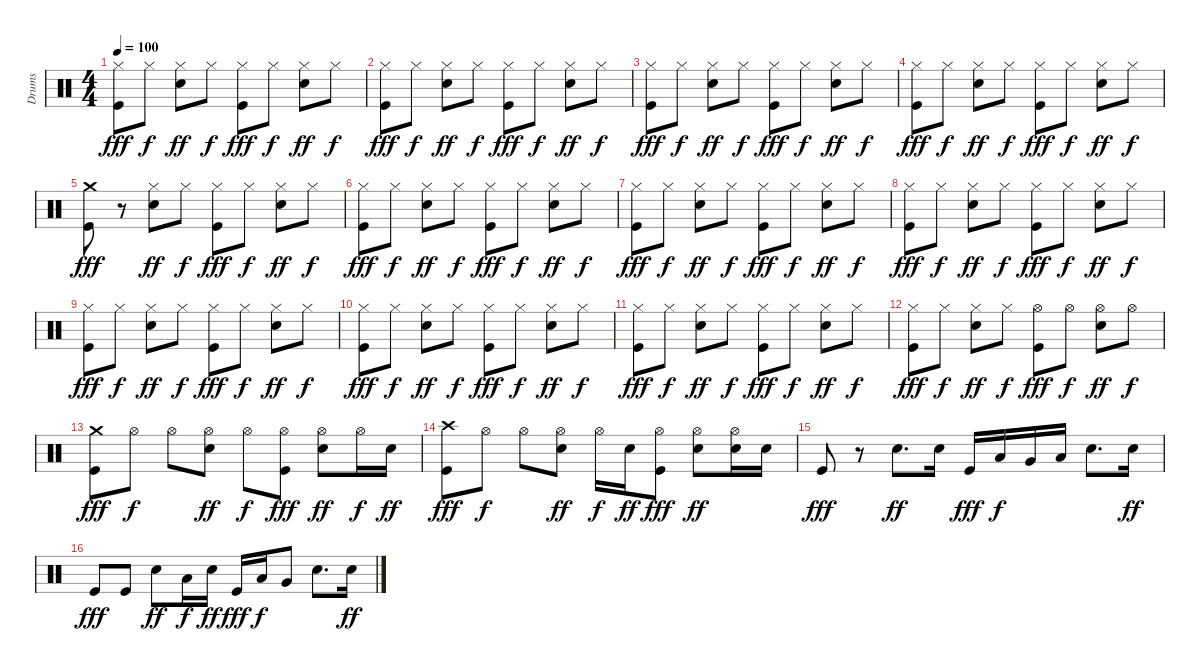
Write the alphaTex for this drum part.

\track ("Drums" "Drums") {instrument percussion}
\staff {score}
\articulation defaults
\ts (4 4)
\tempo 100
\clef neutral
\ks c
("Kick (hit)" "Hi-Hat (closed)").8{dy fff} "Hi-Hat (closed)".8{dy f} ("Snare (hit) 2" "Hi-Hat (closed)").8{dy ff} "Hi-Hat (closed)".8{dy f} ("Kick (hit)" "Hi-Hat (closed)").8{dy fff} "Hi-Hat (closed)".8{dy f} ("Snare (hit) 2" "Hi-Hat (closed)").8{dy ff} "Hi-Hat (closed)".8{dy f} |
("Kick (hit)" "Hi-Hat (closed)").8{dy fff} "Hi-Hat (closed)".8{dy f} ("Snare (hit) 2" "Hi-Hat (closed)").8{dy ff} "Hi-Hat (closed)".8{dy f} ("Kick (hit)" "Hi-Hat (closed)").8{dy fff} "Hi-Hat (closed)".8{dy f} ("Snare (hit) 2" "Hi-Hat (closed)").8{dy ff} "Hi-Hat (closed)".8{dy f} |
("Kick (hit)" "Hi-Hat (closed)").8{dy fff} "Hi-Hat (closed)".8{dy f} ("Snare (hit) 2" "Hi-Hat (closed)").8{dy ff} "Hi-Hat (closed)".8{dy f} ("Kick (hit)" "Hi-Hat (closed)").8{dy fff} "Hi-Hat (closed)".8{dy f} ("Snare (hit) 2" "Hi-Hat (closed)").8{dy ff} "Hi-Hat (closed)".8{dy f} |
("Kick (hit)" "Hi-Hat (closed)").8{dy fff} "Hi-Hat (closed)".8{dy f} ("Snare (hit) 2" "Hi-Hat (closed)").8{dy ff} "Hi-Hat (closed)".8{dy f} ("Kick (hit)" "Hi-Hat (closed)").8{dy fff} "Hi-Hat (closed)".8{dy f} ("Snare (hit) 2" "Hi-Hat (closed)").8{dy ff} "Hi-Hat (closed)".8{dy f} |
("Kick (hit)" "Crash medium (hit)").8{dy fff} r.8 ("Snare (hit) 2" "Hi-Hat (closed)").8{dy ff} "Hi-Hat (closed)".8{dy f} ("Kick (hit)" "Hi-Hat (closed)").8{dy fff} "Hi-Hat (closed)".8{dy f} ("Snare (hit) 2" "Hi-Hat (closed)").8{dy ff} "Hi-Hat (closed)".8{dy f} |
("Kick (hit)" "Hi-Hat (closed)").8{dy fff} "Hi-Hat (closed)".8{dy f} ("Snare (hit) 2" "Hi-Hat (closed)").8{dy ff} "Hi-Hat (closed)".8{dy f} ("Kick (hit)" "Hi-Hat (closed)").8{dy fff} "Hi-Hat (closed)".8{dy f} ("Snare (hit) 2" "Hi-Hat (closed)").8{dy ff} "Hi-Hat (closed)".8{dy f} |
("Kick (hit)" "Hi-Hat (closed)").8{dy fff} "Hi-Hat (closed)".8{dy f} ("Snare (hit) 2" "Hi-Hat (closed)").8{dy ff} "Hi-Hat (closed)".8{dy f} ("Kick (hit)" "Hi-Hat (closed)").8{dy fff} "Hi-Hat (closed)".8{dy f} ("Snare (hit) 2" "Hi-Hat (closed)").8{dy ff} "Hi-Hat (closed)".8{dy f} |
("Kick (hit)" "Hi-Hat (closed)").8{dy fff} "Hi-Hat (closed)".8{dy f} ("Snare (hit) 2" "Hi-Hat (closed)").8{dy ff} "Hi-Hat (closed)".8{dy f} ("Kick (hit)" "Hi-Hat (closed)").8{dy fff} "Hi-Hat (closed)".8{dy f} ("Snare (hit) 2" "Hi-Hat (closed)").8{dy ff} "Hi-Hat (closed)".8{dy f} |
("Kick (hit)" "Hi-Hat (closed)").8{dy fff} "Hi-Hat (closed)".8{dy f} ("Snare (hit) 2" "Hi-Hat (closed)").8{dy ff} "Hi-Hat (closed)".8{dy f} ("Kick (hit)" "Hi-Hat (closed)").8{dy fff} "Hi-Hat (closed)".8{dy f} ("Snare (hit) 2" "Hi-Hat (closed)").8{dy ff} "Hi-Hat (closed)".8{dy f} |
("Kick (hit)" "Hi-Hat (closed)").8{dy fff} "Hi-Hat (closed)".8{dy f} ("Snare (hit) 2" "Hi-Hat (closed)").8{dy ff} "Hi-Hat (closed)".8{dy f} ("Kick (hit)" "Hi-Hat (closed)").8{dy fff} "Hi-Hat (closed)".8{dy f} ("Snare (hit) 2" "Hi-Hat (closed)").8{dy ff} "Hi-Hat (closed)".8{dy f} |
("Kick (hit)" "Hi-Hat (closed)").8{dy fff} "Hi-Hat (closed)".8{dy f} ("Snare (hit) 2" "Hi-Hat (closed)").8{dy ff} "Hi-Hat (closed)".8{dy f} ("Kick (hit)" "Hi-Hat (closed)").8{dy fff} "Hi-Hat (closed)".8{dy f} ("Snare (hit) 2" "Hi-Hat (closed)").8{dy ff} "Hi-Hat (closed)".8{dy f} |
("Kick (hit)" "Hi-Hat (closed)").8{dy fff} "Hi-Hat (closed)".8{dy f} ("Snare (hit) 2" "Hi-Hat (closed)").8{dy ff} "Hi-Hat (closed)".8{dy f} ("Kick (hit)" "Hi-Hat (open)").8{dy fff} "Hi-Hat (open)".8{dy f} ("Snare (hit) 2" "Hi-Hat (open)").8{dy ff} "Hi-Hat (open)".8{dy f} |
("Kick (hit)" "Crash medium (hit)").8{dy fff} "Hi-Hat (open)".8{dy f} "Hi-Hat (open)".8 ("Snare (hit) 2" "Hi-Hat (open)").8{dy ff} "Hi-Hat (open)".8{dy f} ("Kick (hit)" "Hi-Hat (open)").8{dy fff} ("Snare (hit) 2" "Hi-Hat (open)").8{dy ff} "Hi-Hat (open)".16{dy f} "Snare (hit) 2".16{dy ff} |
("Kick (hit)" "Crash high (hit)").8{dy fff} "Hi-Hat (open)".8{dy f} "Hi-Hat (open)".8 ("Snare (hit) 2" "Hi-Hat (open)").8{dy ff} "Hi-Hat (open)".16{dy f} "Snare (hit) 2".16{dy ff} ("Kick (hit)" "Hi-Hat (open)").8{dy fff} ("Snare (hit) 2" "Hi-Hat (open)").8{dy ff} ("Snare (hit) 2" "Hi-Hat (open)").16 "Snare (hit) 2".16 |
"Kick (hit)".8{dy fff} r.8 "Snare (hit) 2".8{d dy ff} "Snare (hit) 2".16 "Kick (hit)".16{dy fff} "Low Tom (hit)".16{dy f} "Very Low Tom (hit)".16 "Low Floor Tom (hit)".16 "Snare (hit) 2".8{d} "Snare (hit) 2".16{dy ff} |
"Kick (hit)".8{dy fff} "Kick (hit)".8 "Snare (hit) 2".8{dy ff} "Low Tom (hit)".16{dy f} "Snare (hit) 2".16{dy ff} "Kick (hit)".16{dy fff} "Low Tom (hit)".16{dy f} "Very Low Tom (hit)".8 "Snare (hit) 2".8{d} "Snare (hit) 2".16{dy ff}
